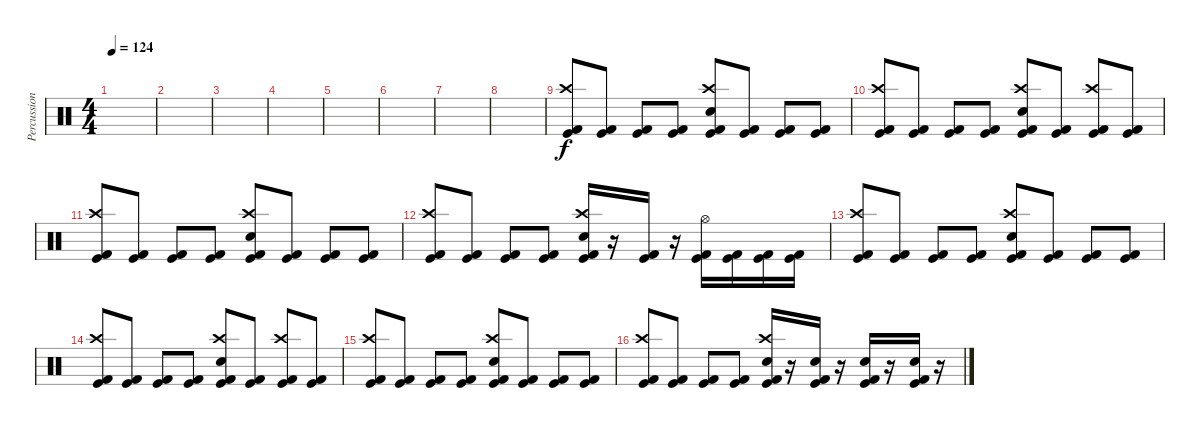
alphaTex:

\track ("Percussion" "Percussion") {instrument percussion}
\staff {score}
\articulation defaults
\ts (4 4)
\tempo 124
\clef neutral
\ks c
|
|
|
|
|
|
|
|
("Kick (hit) 2" "Crash high (hit)" "Kick (hit)").8 ("Kick (hit) 2" "Kick (hit)").8 ("Kick (hit) 2" "Kick (hit)").8 ("Kick (hit) 2" "Kick (hit)").8 ("Kick (hit) 2" "Crash high (hit)" "Electric Snare (hit)" "Kick (hit)").8 ("Kick (hit) 2" "Kick (hit)").8 ("Kick (hit) 2" "Kick (hit)").8 ("Kick (hit) 2" "Kick (hit)").8 |
("Kick (hit) 2" "Crash high (hit)" "Kick (hit)").8 ("Kick (hit) 2" "Kick (hit)").8 ("Kick (hit) 2" "Kick (hit)").8 ("Kick (hit) 2" "Kick (hit)").8 ("Kick (hit) 2" "Crash high (hit)" "Electric Snare (hit)" "Kick (hit)").8 ("Kick (hit) 2" "Kick (hit)").8 ("Kick (hit) 2" "Crash high (hit)" "Kick (hit)").8 ("Kick (hit) 2" "Kick (hit)").8 |
("Kick (hit) 2" "Crash high (hit)" "Kick (hit)").8 ("Kick (hit) 2" "Kick (hit)").8 ("Kick (hit) 2" "Kick (hit)").8 ("Kick (hit) 2" "Kick (hit)").8 ("Kick (hit) 2" "Crash high (hit)" "Electric Snare (hit)" "Kick (hit)").8 ("Kick (hit) 2" "Kick (hit)").8 ("Kick (hit) 2" "Kick (hit)").8 ("Kick (hit) 2" "Kick (hit)").8 |
("Kick (hit) 2" "Crash high (hit)" "Kick (hit)").8 ("Kick (hit) 2" "Kick (hit)").8 ("Kick (hit) 2" "Kick (hit)").8 ("Kick (hit) 2" "Kick (hit)").8 ("Kick (hit) 2" "Crash high (hit)" "Electric Snare (hit)" "Kick (hit)").16 r.16 ("Kick (hit) 2" "Kick (hit)").16 r.16 ("Kick (hit) 2" "Hi-Hat (open)" "Kick (hit)").16 ("Kick (hit) 2" "Kick (hit)").16 ("Kick (hit) 2" "Kick (hit)").16 ("Kick (hit) 2" "Kick (hit)").16 |
("Kick (hit) 2" "Crash high (hit)" "Kick (hit)").8 ("Kick (hit) 2" "Kick (hit)").8 ("Kick (hit) 2" "Kick (hit)").8 ("Kick (hit) 2" "Kick (hit)").8 ("Kick (hit) 2" "Crash high (hit)" "Electric Snare (hit)" "Kick (hit)").8 ("Kick (hit) 2" "Kick (hit)").8 ("Kick (hit) 2" "Kick (hit)").8 ("Kick (hit) 2" "Kick (hit)").8 |
("Kick (hit) 2" "Crash high (hit)" "Kick (hit)").8 ("Kick (hit) 2" "Kick (hit)").8 ("Kick (hit) 2" "Kick (hit)").8 ("Kick (hit) 2" "Kick (hit)").8 ("Kick (hit) 2" "Crash high (hit)" "Electric Snare (hit)" "Kick (hit)").8 ("Kick (hit) 2" "Kick (hit)").8 ("Kick (hit) 2" "Crash high (hit)" "Kick (hit)").8 ("Kick (hit) 2" "Kick (hit)").8 |
("Kick (hit) 2" "Crash high (hit)" "Kick (hit)").8 ("Kick (hit) 2" "Kick (hit)").8 ("Kick (hit) 2" "Kick (hit)").8 ("Kick (hit) 2" "Kick (hit)").8 ("Kick (hit) 2" "Crash high (hit)" "Electric Snare (hit)" "Kick (hit)").8 ("Kick (hit) 2" "Kick (hit)").8 ("Kick (hit) 2" "Kick (hit)").8 ("Kick (hit) 2" "Kick (hit)").8 |
("Kick (hit) 2" "Crash high (hit)" "Kick (hit)").8 ("Kick (hit) 2" "Kick (hit)").8 ("Kick (hit) 2" "Kick (hit)").8 ("Kick (hit) 2" "Kick (hit)").8 ("Kick (hit) 2" "Crash high (hit)" "Electric Snare (hit)" "Kick (hit)").16 r.16 ("Kick (hit) 2" "Electric Snare (hit)" "Kick (hit)").16 r.16 ("Kick (hit) 2" "Electric Snare (hit)" "Kick (hit)").16 r.16 ("Kick (hit) 2" "Electric Snare (hit)" "Kick (hit)").16 r.16
